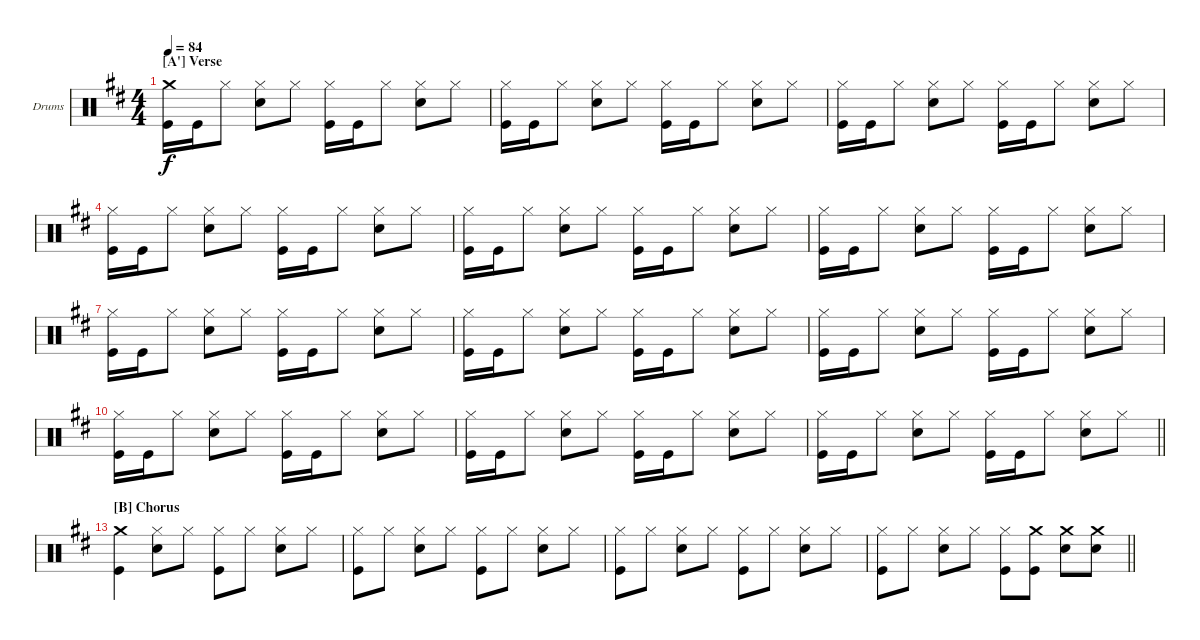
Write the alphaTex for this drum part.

\bracketExtendMode nobrackets
\firstSystemTrackNameOrientation horizontal
\otherSystemsTrackNameOrientation horizontal
\defaultBarNumberDisplay FirstOfSystem
\track ("Drumkit" "Drums") {instrument percussion}
\staff {score}
\articulation defaults
\ts (4 4)
\section ("A'" "Verse")
\tempo 84
\clef neutral
\ks d
("Kick (hit)" "Crash medium (hit)").16{dy f} "Kick (hit)".16 "Hi-Hat (closed)".8 ("Snare (hit) 2" "Hi-Hat (closed)").8 "Hi-Hat (closed)".8 ("Kick (hit)" "Hi-Hat (closed)").16 "Kick (hit)".16 "Hi-Hat (closed)".8 ("Snare (hit) 2" "Hi-Hat (closed)").8 "Hi-Hat (closed)".8 |
("Kick (hit)" "Hi-Hat (closed)").16 "Kick (hit)".16 "Hi-Hat (closed)".8 ("Snare (hit) 2" "Hi-Hat (closed)").8 "Hi-Hat (closed)".8 ("Kick (hit)" "Hi-Hat (closed)").16 "Kick (hit)".16 "Hi-Hat (closed)".8 ("Snare (hit) 2" "Hi-Hat (closed)").8 "Hi-Hat (closed)".8 |
("Kick (hit)" "Hi-Hat (closed)").16 "Kick (hit)".16 "Hi-Hat (closed)".8 ("Snare (hit) 2" "Hi-Hat (closed)").8 "Hi-Hat (closed)".8 ("Kick (hit)" "Hi-Hat (closed)").16 "Kick (hit)".16 "Hi-Hat (closed)".8 ("Snare (hit) 2" "Hi-Hat (closed)").8 "Hi-Hat (closed)".8 |
("Kick (hit)" "Hi-Hat (closed)").16 "Kick (hit)".16 "Hi-Hat (closed)".8 ("Snare (hit) 2" "Hi-Hat (closed)").8 "Hi-Hat (closed)".8 ("Kick (hit)" "Hi-Hat (closed)").16 "Kick (hit)".16 "Hi-Hat (closed)".8 ("Snare (hit) 2" "Hi-Hat (closed)").8 "Hi-Hat (closed)".8 |
("Kick (hit)" "Hi-Hat (closed)").16 "Kick (hit)".16 "Hi-Hat (closed)".8 ("Snare (hit) 2" "Hi-Hat (closed)").8 "Hi-Hat (closed)".8 ("Kick (hit)" "Hi-Hat (closed)").16 "Kick (hit)".16 "Hi-Hat (closed)".8 ("Snare (hit) 2" "Hi-Hat (closed)").8 "Hi-Hat (closed)".8 |
("Kick (hit)" "Hi-Hat (closed)").16 "Kick (hit)".16 "Hi-Hat (closed)".8 ("Snare (hit) 2" "Hi-Hat (closed)").8 "Hi-Hat (closed)".8 ("Kick (hit)" "Hi-Hat (closed)").16 "Kick (hit)".16 "Hi-Hat (closed)".8 ("Snare (hit) 2" "Hi-Hat (closed)").8 "Hi-Hat (closed)".8 |
("Kick (hit)" "Hi-Hat (closed)").16 "Kick (hit)".16 "Hi-Hat (closed)".8 ("Snare (hit) 2" "Hi-Hat (closed)").8 "Hi-Hat (closed)".8 ("Kick (hit)" "Hi-Hat (closed)").16 "Kick (hit)".16 "Hi-Hat (closed)".8 ("Snare (hit) 2" "Hi-Hat (closed)").8 "Hi-Hat (closed)".8 |
("Kick (hit)" "Hi-Hat (closed)").16 "Kick (hit)".16 "Hi-Hat (closed)".8 ("Snare (hit) 2" "Hi-Hat (closed)").8 "Hi-Hat (closed)".8 ("Kick (hit)" "Hi-Hat (closed)").16 "Kick (hit)".16 "Hi-Hat (closed)".8 ("Snare (hit) 2" "Hi-Hat (closed)").8 "Hi-Hat (closed)".8 |
("Kick (hit)" "Hi-Hat (closed)").16 "Kick (hit)".16 "Hi-Hat (closed)".8 ("Snare (hit) 2" "Hi-Hat (closed)").8 "Hi-Hat (closed)".8 ("Kick (hit)" "Hi-Hat (closed)").16 "Kick (hit)".16 "Hi-Hat (closed)".8 ("Snare (hit) 2" "Hi-Hat (closed)").8 "Hi-Hat (closed)".8 |
("Kick (hit)" "Hi-Hat (closed)").16 "Kick (hit)".16 "Hi-Hat (closed)".8 ("Snare (hit) 2" "Hi-Hat (closed)").8 "Hi-Hat (closed)".8 ("Kick (hit)" "Hi-Hat (closed)").16 "Kick (hit)".16 "Hi-Hat (closed)".8 ("Snare (hit) 2" "Hi-Hat (closed)").8 "Hi-Hat (closed)".8 |
("Kick (hit)" "Hi-Hat (closed)").16 "Kick (hit)".16 "Hi-Hat (closed)".8 ("Snare (hit) 2" "Hi-Hat (closed)").8 "Hi-Hat (closed)".8 ("Kick (hit)" "Hi-Hat (closed)").16 "Kick (hit)".16 "Hi-Hat (closed)".8 ("Snare (hit) 2" "Hi-Hat (closed)").8 "Hi-Hat (closed)".8 |
\barLineRight lightlight
("Kick (hit)" "Hi-Hat (closed)").16 "Kick (hit)".16 "Hi-Hat (closed)".8 ("Snare (hit) 2" "Hi-Hat (closed)").8 "Hi-Hat (closed)".8 ("Kick (hit)" "Hi-Hat (closed)").16 "Kick (hit)".16 "Hi-Hat (closed)".8 ("Snare (hit) 2" "Hi-Hat (closed)").8 "Hi-Hat (closed)".8 |
\section ("B" "Chorus")
("Kick (hit)" "Crash medium (hit)").4 ("Snare (hit) 2" "Hi-Hat (closed)").8 "Hi-Hat (closed)".8 ("Kick (hit)" "Hi-Hat (closed)").8 "Hi-Hat (closed)".8 ("Snare (hit) 2" "Hi-Hat (closed)").8 "Hi-Hat (closed)".8 |
("Kick (hit)" "Hi-Hat (closed)").8 "Hi-Hat (closed)".8 ("Snare (hit) 2" "Hi-Hat (closed)").8 "Hi-Hat (closed)".8 ("Kick (hit)" "Hi-Hat (closed)").8 "Hi-Hat (closed)".8 ("Snare (hit) 2" "Hi-Hat (closed)").8 "Hi-Hat (closed)".8 |
("Kick (hit)" "Hi-Hat (closed)").8 "Hi-Hat (closed)".8 ("Snare (hit) 2" "Hi-Hat (closed)").8 "Hi-Hat (closed)".8 ("Kick (hit)" "Hi-Hat (closed)").8 "Hi-Hat (closed)".8 ("Snare (hit) 2" "Hi-Hat (closed)").8 "Hi-Hat (closed)".8 |
\barLineRight lightlight
("Kick (hit)" "Hi-Hat (closed)").8 "Hi-Hat (closed)".8 ("Snare (hit) 2" "Hi-Hat (closed)").8 "Hi-Hat (closed)".8 ("Kick (hit)" "Hi-Hat (closed)").8 ("Kick (hit)" "Crash medium (hit)").8 ("Snare (hit) 2" "Crash medium (hit)").8 ("Snare (hit) 2" "Crash medium (hit)").8
